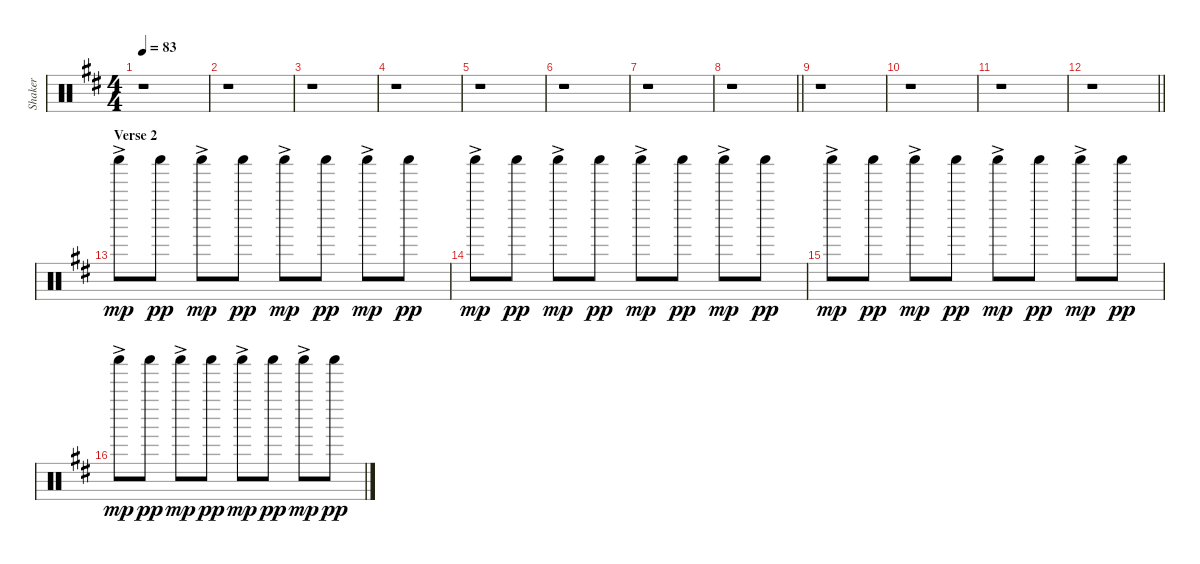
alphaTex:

\track ("Shaker" "Shaker") {instrument percussion}
\staff {score}
\articulation defaults
\ts (4 4)
\tempo 83
\clef neutral
\ks d
r.1{dy mp} |
r.1 |
r.1 |
r.1 |
r.1 |
r.1 |
r.1 |
\barLineRight lightlight
r.1 |
r.1 |
r.1 |
r.1 |
\barLineRight lightlight
r.1 |
\section ("" "Verse 2")
"Shaker (hit)"{ac}.8 "Shaker (hit)".8{dy pp} "Shaker (hit)"{ac}.8{dy mp} "Shaker (hit)".8{dy pp} "Shaker (hit)"{ac}.8{dy mp} "Shaker (hit)".8{dy pp} "Shaker (hit)"{ac}.8{dy mp} "Shaker (hit)".8{dy pp} |
"Shaker (hit)"{ac}.8{dy mp} "Shaker (hit)".8{dy pp} "Shaker (hit)"{ac}.8{dy mp} "Shaker (hit)".8{dy pp} "Shaker (hit)"{ac}.8{dy mp} "Shaker (hit)".8{dy pp} "Shaker (hit)"{ac}.8{dy mp} "Shaker (hit)".8{dy pp} |
"Shaker (hit)"{ac}.8{dy mp} "Shaker (hit)".8{dy pp} "Shaker (hit)"{ac}.8{dy mp} "Shaker (hit)".8{dy pp} "Shaker (hit)"{ac}.8{dy mp} "Shaker (hit)".8{dy pp} "Shaker (hit)"{ac}.8{dy mp} "Shaker (hit)".8{dy pp} |
"Shaker (hit)"{ac}.8{dy mp} "Shaker (hit)".8{dy pp} "Shaker (hit)"{ac}.8{dy mp} "Shaker (hit)".8{dy pp} "Shaker (hit)"{ac}.8{dy mp} "Shaker (hit)".8{dy pp} "Shaker (hit)"{ac}.8{dy mp} "Shaker (hit)".8{dy pp}
